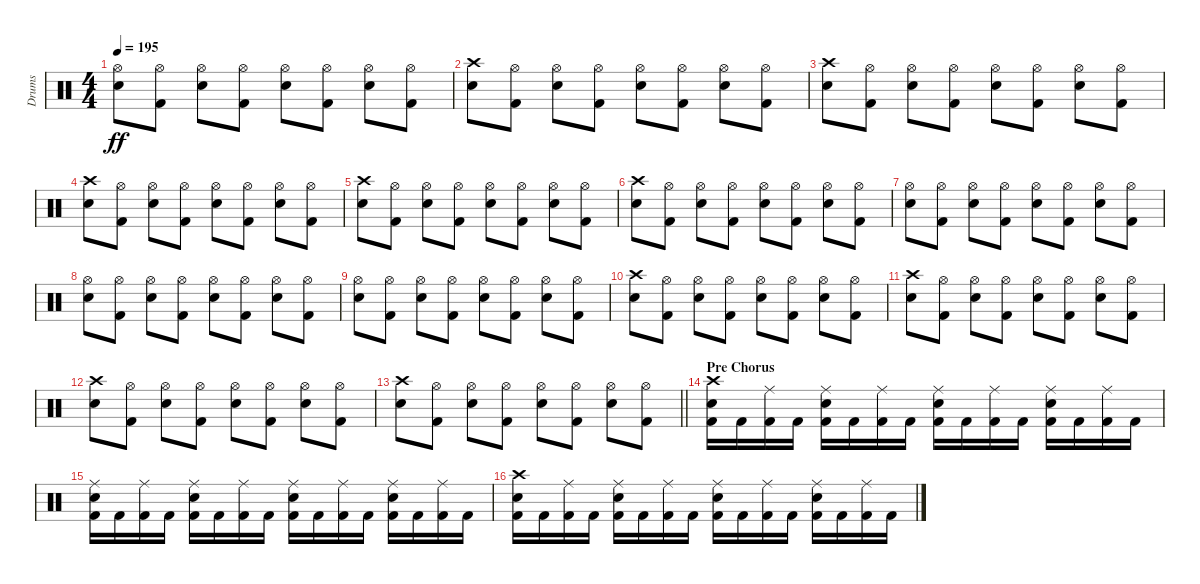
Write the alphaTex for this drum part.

\track ("Drums" "Drums") {instrument percussion}
\staff {score}
\articulation defaults
\ts (4 4)
\tempo 195
\clef neutral
\ks c
("Hi-Hat (open)" "Snare (hit) 2").8{dy ff} ("Hi-Hat (open)" "Kick (hit) 2").8 ("Hi-Hat (open)" "Snare (hit) 2").8 ("Hi-Hat (open)" "Kick (hit) 2").8 ("Hi-Hat (open)" "Snare (hit) 2").8 ("Hi-Hat (open)" "Kick (hit) 2").8 ("Hi-Hat (open)" "Snare (hit) 2").8 ("Hi-Hat (open)" "Kick (hit) 2").8 |
("Crash high (hit)" "Snare (hit) 2").8 ("Hi-Hat (open)" "Kick (hit) 2").8 ("Hi-Hat (open)" "Snare (hit) 2").8 ("Hi-Hat (open)" "Kick (hit) 2").8 ("Hi-Hat (open)" "Snare (hit) 2").8 ("Hi-Hat (open)" "Kick (hit) 2").8 ("Hi-Hat (open)" "Snare (hit) 2").8 ("Hi-Hat (open)" "Kick (hit) 2").8 |
("Crash high (hit)" "Snare (hit) 2").8 ("Hi-Hat (open)" "Kick (hit) 2").8 ("Hi-Hat (open)" "Snare (hit) 2").8 ("Hi-Hat (open)" "Kick (hit) 2").8 ("Hi-Hat (open)" "Snare (hit) 2").8 ("Hi-Hat (open)" "Kick (hit) 2").8 ("Hi-Hat (open)" "Snare (hit) 2").8 ("Hi-Hat (open)" "Kick (hit) 2").8 |
("Crash high (hit)" "Snare (hit) 2").8 ("Hi-Hat (open)" "Kick (hit) 2").8 ("Hi-Hat (open)" "Snare (hit) 2").8 ("Hi-Hat (open)" "Kick (hit) 2").8 ("Hi-Hat (open)" "Snare (hit) 2").8 ("Hi-Hat (open)" "Kick (hit) 2").8 ("Hi-Hat (open)" "Snare (hit) 2").8 ("Hi-Hat (open)" "Kick (hit) 2").8 |
("Crash high (hit)" "Snare (hit) 2").8 ("Hi-Hat (open)" "Kick (hit) 2").8 ("Hi-Hat (open)" "Snare (hit) 2").8 ("Hi-Hat (open)" "Kick (hit) 2").8 ("Hi-Hat (open)" "Snare (hit) 2").8 ("Hi-Hat (open)" "Kick (hit) 2").8 ("Hi-Hat (open)" "Snare (hit) 2").8 ("Hi-Hat (open)" "Kick (hit) 2").8 |
("Crash high (hit)" "Snare (hit) 2").8 ("Hi-Hat (open)" "Kick (hit) 2").8 ("Hi-Hat (open)" "Snare (hit) 2").8 ("Hi-Hat (open)" "Kick (hit) 2").8 ("Hi-Hat (open)" "Snare (hit) 2").8 ("Hi-Hat (open)" "Kick (hit) 2").8 ("Hi-Hat (open)" "Snare (hit) 2").8 ("Hi-Hat (open)" "Kick (hit) 2").8 |
("Hi-Hat (open)" "Snare (hit) 2").8 ("Hi-Hat (open)" "Kick (hit) 2").8 ("Hi-Hat (open)" "Snare (hit) 2").8 ("Hi-Hat (open)" "Kick (hit) 2").8 ("Hi-Hat (open)" "Snare (hit) 2").8 ("Hi-Hat (open)" "Kick (hit) 2").8 ("Hi-Hat (open)" "Snare (hit) 2").8 ("Hi-Hat (open)" "Kick (hit) 2").8 |
("Hi-Hat (open)" "Snare (hit) 2").8 ("Hi-Hat (open)" "Kick (hit) 2").8 ("Hi-Hat (open)" "Snare (hit) 2").8 ("Hi-Hat (open)" "Kick (hit) 2").8 ("Hi-Hat (open)" "Snare (hit) 2").8 ("Hi-Hat (open)" "Kick (hit) 2").8 ("Hi-Hat (open)" "Snare (hit) 2").8 ("Hi-Hat (open)" "Kick (hit) 2").8 |
("Hi-Hat (open)" "Snare (hit) 2").8 ("Hi-Hat (open)" "Kick (hit) 2").8 ("Hi-Hat (open)" "Snare (hit) 2").8 ("Hi-Hat (open)" "Kick (hit) 2").8 ("Hi-Hat (open)" "Snare (hit) 2").8 ("Hi-Hat (open)" "Kick (hit) 2").8 ("Hi-Hat (open)" "Snare (hit) 2").8 ("Hi-Hat (open)" "Kick (hit) 2").8 |
("Crash high (hit)" "Snare (hit) 2").8 ("Hi-Hat (open)" "Kick (hit) 2").8 ("Hi-Hat (open)" "Snare (hit) 2").8 ("Hi-Hat (open)" "Kick (hit) 2").8 ("Hi-Hat (open)" "Snare (hit) 2").8 ("Hi-Hat (open)" "Kick (hit) 2").8 ("Hi-Hat (open)" "Snare (hit) 2").8 ("Hi-Hat (open)" "Kick (hit) 2").8 |
("Crash high (hit)" "Snare (hit) 2").8 ("Hi-Hat (open)" "Kick (hit) 2").8 ("Hi-Hat (open)" "Snare (hit) 2").8 ("Hi-Hat (open)" "Kick (hit) 2").8 ("Hi-Hat (open)" "Snare (hit) 2").8 ("Hi-Hat (open)" "Kick (hit) 2").8 ("Hi-Hat (open)" "Snare (hit) 2").8 ("Hi-Hat (open)" "Kick (hit) 2").8 |
("Crash high (hit)" "Snare (hit) 2").8 ("Hi-Hat (open)" "Kick (hit) 2").8 ("Hi-Hat (open)" "Snare (hit) 2").8 ("Hi-Hat (open)" "Kick (hit) 2").8 ("Hi-Hat (open)" "Snare (hit) 2").8 ("Hi-Hat (open)" "Kick (hit) 2").8 ("Hi-Hat (open)" "Snare (hit) 2").8 ("Hi-Hat (open)" "Kick (hit) 2").8 |
\barLineRight lightlight
("Crash high (hit)" "Snare (hit) 2").8 ("Hi-Hat (open)" "Kick (hit) 2").8 ("Hi-Hat (open)" "Snare (hit) 2").8 ("Hi-Hat (open)" "Kick (hit) 2").8 ("Hi-Hat (open)" "Snare (hit) 2").8 ("Hi-Hat (open)" "Kick (hit) 2").8 ("Hi-Hat (open)" "Snare (hit) 2").8 ("Hi-Hat (open)" "Kick (hit) 2").8 |
\section ("" "Pre Chorus")
("Crash high (hit)" "Snare (hit) 2" "Kick (hit) 2").16 "Kick (hit) 2".16 ("Ride (middle)" "Kick (hit) 2").16 "Kick (hit) 2".16 ("Ride (middle)" "Snare (hit) 2" "Kick (hit) 2").16 "Kick (hit) 2".16 ("Ride (middle)" "Kick (hit) 2").16 "Kick (hit) 2".16 ("Ride (middle)" "Snare (hit) 2" "Kick (hit) 2").16 "Kick (hit) 2".16 ("Ride (middle)" "Kick (hit) 2").16 "Kick (hit) 2".16 ("Ride (middle)" "Snare (hit) 2" "Kick (hit) 2").16 "Kick (hit) 2".16 ("Ride (middle)" "Kick (hit) 2").16 "Kick (hit) 2".16 |
("Ride (middle)" "Snare (hit) 2" "Kick (hit) 2").16 "Kick (hit) 2".16 ("Ride (middle)" "Kick (hit) 2").16 "Kick (hit) 2".16 ("Ride (middle)" "Snare (hit) 2" "Kick (hit) 2").16 "Kick (hit) 2".16 ("Ride (middle)" "Kick (hit) 2").16 "Kick (hit) 2".16 ("Ride (middle)" "Snare (hit) 2" "Kick (hit) 2").16 "Kick (hit) 2".16 ("Ride (middle)" "Kick (hit) 2").16 "Kick (hit) 2".16 ("Ride (middle)" "Snare (hit) 2" "Kick (hit) 2").16 "Kick (hit) 2".16 ("Ride (middle)" "Kick (hit) 2").16 "Kick (hit) 2".16 |
("Crash high (hit)" "Snare (hit) 2" "Kick (hit) 2").16 "Kick (hit) 2".16 ("Ride (middle)" "Kick (hit) 2").16 "Kick (hit) 2".16 ("Ride (middle)" "Snare (hit) 2" "Kick (hit) 2").16 "Kick (hit) 2".16 ("Ride (middle)" "Kick (hit) 2").16 "Kick (hit) 2".16 ("Ride (middle)" "Snare (hit) 2" "Kick (hit) 2").16 "Kick (hit) 2".16 ("Ride (middle)" "Kick (hit) 2").16 "Kick (hit) 2".16 ("Ride (middle)" "Snare (hit) 2" "Kick (hit) 2").16 "Kick (hit) 2".16 ("Ride (middle)" "Kick (hit) 2").16 "Kick (hit) 2".16
